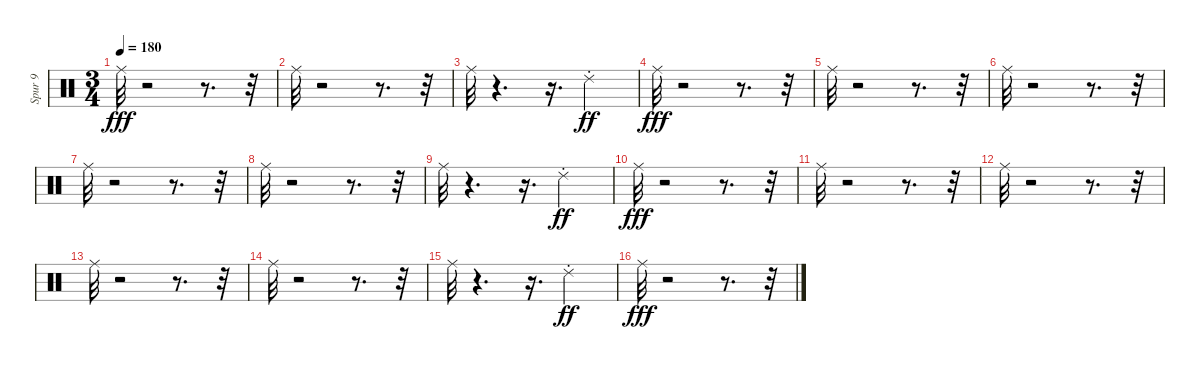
\track ("Spur 9" "Spur 9") {instrument percussion}
\staff {score}
\articulation defaults
\ts (3 4)
\tempo 180
\clef neutral
\ks c "Ride (middle)".32{dy fff}
r.2 r.8{d} r.32 |
"Ride (middle)".32 r.2 r.8{d} r.32 |
"Ride (middle)".32 r.4{d} r.16{d} "Ride (choke) 2".4{dy ff} |
"Ride (middle)".32{dy fff} r.2 r.8{d} r.32 |
"Ride (middle)".32 r.2 r.8{d} r.32 |
"Ride (middle)".32 r.2 r.8{d} r.32 |
"Ride (middle)".32 r.2 r.8{d} r.32 |
"Ride (middle)".32 r.2 r.8{d} r.32 |
"Ride (middle)".32 r.4{d} r.16{d} "Ride (choke) 2".4{dy ff} |
"Ride (middle)".32{dy fff} r.2 r.8{d} r.32 |
"Ride (middle)".32 r.2 r.8{d} r.32 |
"Ride (middle)".32 r.2 r.8{d} r.32 |
"Ride (middle)".32 r.2 r.8{d} r.32 |
"Ride (middle)".32 r.2 r.8{d} r.32 |
"Ride (middle)".32 r.4{d} r.16{d} "Ride (choke) 2".4{dy ff} |
"Ride (middle)".32{dy fff} r.2 r.8{d} r.32
